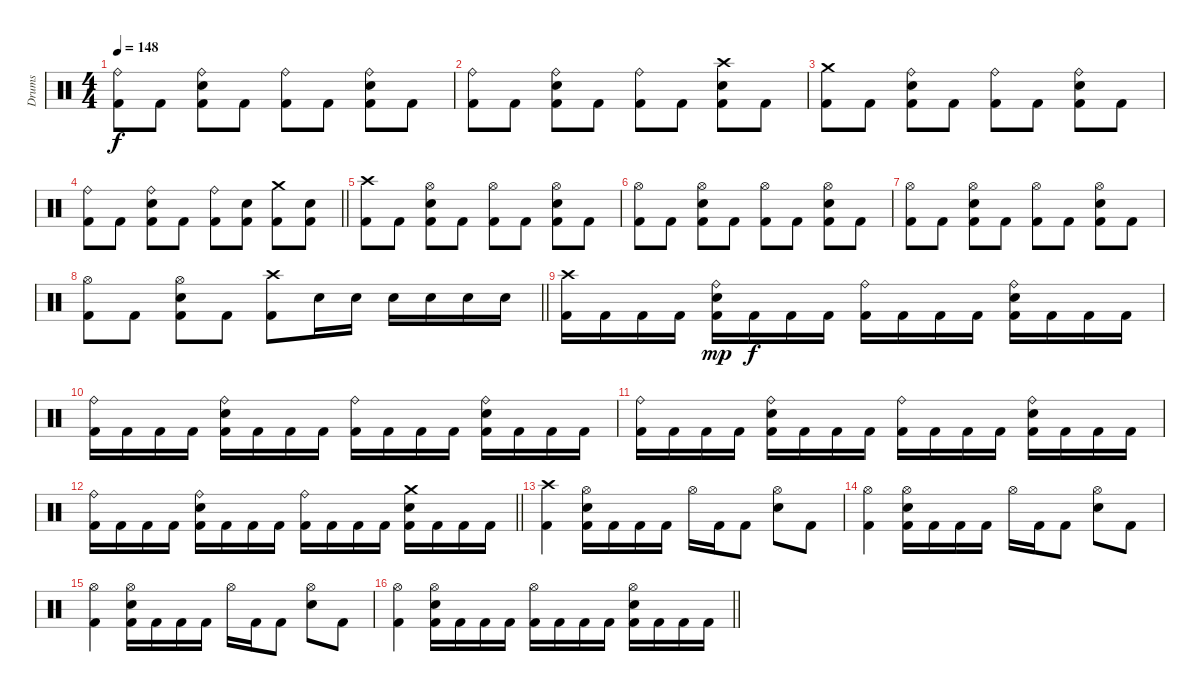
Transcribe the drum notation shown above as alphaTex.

\track ("Drums" "Drums") {instrument percussion}
\staff {score}
\articulation defaults
\ts (4 4)
\tempo 148
\clef neutral
\ks c
("Ride (bell)" "Kick (hit) 2").8{dy f} "Kick (hit) 2".8 ("Ride (bell)" "Electric Snare (hit)" "Kick (hit) 2").8 "Kick (hit) 2".8 ("Ride (bell)" "Kick (hit) 2").8 "Kick (hit) 2".8 ("Ride (bell)" "Electric Snare (hit)" "Kick (hit) 2").8 "Kick (hit) 2".8 |
("Ride (bell)" "Kick (hit) 2").8 "Kick (hit) 2".8 ("Ride (bell)" "Electric Snare (hit)" "Kick (hit) 2").8 "Kick (hit) 2".8 ("Ride (bell)" "Kick (hit) 2").8 "Kick (hit) 2".8 ("Crash high (hit)" "Electric Snare (hit)" "Kick (hit) 2").8 "Kick (hit) 2".8 |
("Crash medium (hit)" "Kick (hit) 2").8 "Kick (hit) 2".8 ("Ride (bell)" "Electric Snare (hit)" "Kick (hit) 2").8 "Kick (hit) 2".8 ("Ride (bell)" "Kick (hit) 2").8 "Kick (hit) 2".8 ("Ride (bell)" "Electric Snare (hit)" "Kick (hit) 2").8 "Kick (hit) 2".8 |
\barLineRight lightlight
("Ride (bell)" "Kick (hit) 2").8 "Kick (hit) 2".8 ("Ride (bell)" "Electric Snare (hit)" "Kick (hit) 2").8 "Kick (hit) 2".8 ("Ride (bell)" "Kick (hit) 2").8 ("Electric Snare (hit)" "Kick (hit) 2").8 ("Crash medium (hit)" "Kick (hit) 2").8 ("Electric Snare (hit)" "Kick (hit) 2").8 |
("Crash high (hit)" "Kick (hit) 2").8 "Kick (hit) 2".8 ("Hi-Hat (open)" "Electric Snare (hit)" "Kick (hit) 2").8 "Kick (hit) 2".8 ("Hi-Hat (open)" "Kick (hit) 2").8 "Kick (hit) 2".8 ("Hi-Hat (open)" "Electric Snare (hit)" "Kick (hit) 2").8 "Kick (hit) 2".8 |
("Hi-Hat (open)" "Kick (hit) 2").8 "Kick (hit) 2".8 ("Hi-Hat (open)" "Electric Snare (hit)" "Kick (hit) 2").8 "Kick (hit) 2".8 ("Hi-Hat (open)" "Kick (hit) 2").8 "Kick (hit) 2".8 ("Hi-Hat (open)" "Electric Snare (hit)" "Kick (hit) 2").8 "Kick (hit) 2".8 |
("Hi-Hat (open)" "Kick (hit) 2").8 "Kick (hit) 2".8 ("Hi-Hat (open)" "Electric Snare (hit)" "Kick (hit) 2").8 "Kick (hit) 2".8 ("Hi-Hat (open)" "Kick (hit) 2").8 "Kick (hit) 2".8 ("Hi-Hat (open)" "Electric Snare (hit)" "Kick (hit) 2").8 "Kick (hit) 2".8 |
\barLineRight lightlight
("Hi-Hat (open)" "Kick (hit) 2").8 "Kick (hit) 2".8 ("Hi-Hat (open)" "Electric Snare (hit)" "Kick (hit) 2").8 "Kick (hit) 2".8 ("Crash high (hit)" "Kick (hit) 2").8 "Electric Snare (hit)".16 "Electric Snare (hit)".16 "Electric Snare (hit)".16 "Electric Snare (hit)".16 "Electric Snare (hit)".16 "Electric Snare (hit)".16 |
("Crash high (hit)" "Kick (hit) 2").16 "Kick (hit) 2".16 "Kick (hit) 2".16 "Kick (hit) 2".16 ("Ride (bell)" "Electric Snare (hit)" "Kick (hit) 2").16{dy mp} "Kick (hit) 2".16{dy f} "Kick (hit) 2".16 "Kick (hit) 2".16 ("Ride (bell)" "Kick (hit) 2").16 "Kick (hit) 2".16 "Kick (hit) 2".16 "Kick (hit) 2".16 ("Ride (bell)" "Electric Snare (hit)" "Kick (hit) 2").16 "Kick (hit) 2".16 "Kick (hit) 2".16 "Kick (hit) 2".16 |
("Ride (bell)" "Kick (hit) 2").16 "Kick (hit) 2".16 "Kick (hit) 2".16 "Kick (hit) 2".16 ("Ride (bell)" "Electric Snare (hit)" "Kick (hit) 2").16 "Kick (hit) 2".16 "Kick (hit) 2".16 "Kick (hit) 2".16 ("Ride (bell)" "Kick (hit) 2").16 "Kick (hit) 2".16 "Kick (hit) 2".16 "Kick (hit) 2".16 ("Ride (bell)" "Electric Snare (hit)" "Kick (hit) 2").16 "Kick (hit) 2".16 "Kick (hit) 2".16 "Kick (hit) 2".16 |
("Ride (bell)" "Kick (hit) 2").16 "Kick (hit) 2".16 "Kick (hit) 2".16 "Kick (hit) 2".16 ("Ride (bell)" "Electric Snare (hit)" "Kick (hit) 2").16 "Kick (hit) 2".16 "Kick (hit) 2".16 "Kick (hit) 2".16 ("Ride (bell)" "Kick (hit) 2").16 "Kick (hit) 2".16 "Kick (hit) 2".16 "Kick (hit) 2".16 ("Ride (bell)" "Electric Snare (hit)" "Kick (hit) 2").16 "Kick (hit) 2".16 "Kick (hit) 2".16 "Kick (hit) 2".16 |
\barLineRight lightlight
("Ride (bell)" "Kick (hit) 2").16 "Kick (hit) 2".16 "Kick (hit) 2".16 "Kick (hit) 2".16 ("Ride (bell)" "Electric Snare (hit)" "Kick (hit) 2").16 "Kick (hit) 2".16 "Kick (hit) 2".16 "Kick (hit) 2".16 ("Ride (bell)" "Kick (hit) 2").16 "Kick (hit) 2".16 "Kick (hit) 2".16 "Kick (hit) 2".16 ("Crash medium (hit)" "Electric Snare (hit)" "Kick (hit) 2").16 "Kick (hit) 2".16 "Kick (hit) 2".16 "Kick (hit) 2".16 |
("Crash high (hit)" "Kick (hit) 2").4 ("Electric Snare (hit)" "Hi-Hat (open)" "Kick (hit) 2").16 "Kick (hit) 2".16 "Kick (hit) 2".16 "Kick (hit) 2".16 "Hi-Hat (open)".16 "Kick (hit) 2".16 "Kick (hit) 2".8 ("Electric Snare (hit)" "Hi-Hat (open)").8 "Kick (hit) 2".8 |
("Hi-Hat (open)" "Kick (hit) 2").4 ("Electric Snare (hit)" "Hi-Hat (open)" "Kick (hit) 2").16 "Kick (hit) 2".16 "Kick (hit) 2".16 "Kick (hit) 2".16 "Hi-Hat (open)".16 "Kick (hit) 2".16 "Kick (hit) 2".8 ("Electric Snare (hit)" "Hi-Hat (open)").8 "Kick (hit) 2".8 |
("Hi-Hat (open)" "Kick (hit) 2").4 ("Electric Snare (hit)" "Hi-Hat (open)" "Kick (hit) 2").16 "Kick (hit) 2".16 "Kick (hit) 2".16 "Kick (hit) 2".16 "Hi-Hat (open)".16 "Kick (hit) 2".16 "Kick (hit) 2".8 ("Electric Snare (hit)" "Hi-Hat (open)").8 "Kick (hit) 2".8 |
\barLineRight lightlight
("Hi-Hat (open)" "Kick (hit) 2").4 ("Electric Snare (hit)" "Hi-Hat (open)" "Kick (hit) 2").16 "Kick (hit) 2".16 "Kick (hit) 2".16 "Kick (hit) 2".16 ("Hi-Hat (open)" "Kick (hit) 2").16 "Kick (hit) 2".16 "Kick (hit) 2".16 "Kick (hit) 2".16 ("Electric Snare (hit)" "Hi-Hat (open)" "Kick (hit) 2").16 "Kick (hit) 2".16 "Kick (hit) 2".16 "Kick (hit) 2".16
